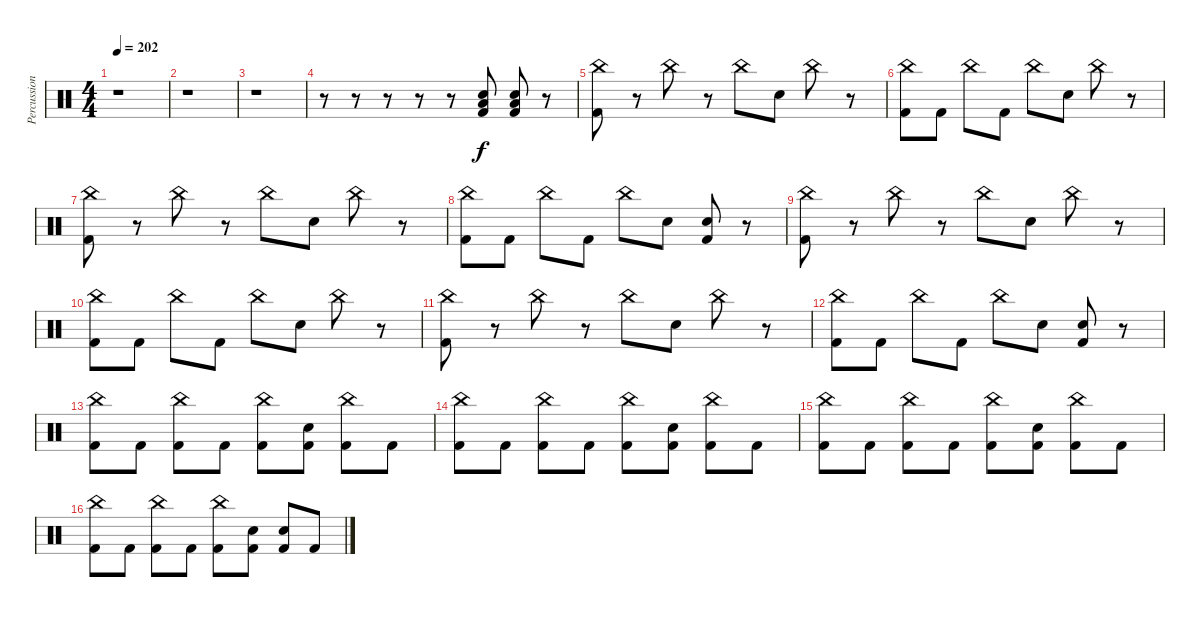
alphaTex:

\track ("Percussion" "Percussion") {instrument percussion}
\staff {score}
\articulation defaults
\ts (4 4)
\tempo 202
\clef neutral
\ks c
r.1{dy f} |
r.1 |
r.1 |
r.8 r.8 r.8 r.8 r.8 ("Low Tom (hit)" "Electric Snare (hit)" "Kick (hit) 2").8 ("Low Tom (hit)" "Electric Snare (hit)" "Kick (hit) 2").8 r.8 |
("China (hit)" "Kick (hit) 2").8 r.8 "China (hit)".8 r.8 "China (hit)".8 "Electric Snare (hit)".8 "China (hit)".8 r.8 |
("China (hit)" "Kick (hit) 2").8 "Kick (hit) 2".8 "China (hit)".8 "Kick (hit) 2".8 "China (hit)".8 "Electric Snare (hit)".8 "China (hit)".8 r.8 |
("China (hit)" "Kick (hit) 2").8 r.8 "China (hit)".8 r.8 "China (hit)".8 "Electric Snare (hit)".8 "China (hit)".8 r.8 |
("China (hit)" "Kick (hit) 2").8 "Kick (hit) 2".8 "China (hit)".8 "Kick (hit) 2".8 "China (hit)".8 "Electric Snare (hit)".8 ("Electric Snare (hit)" "Kick (hit) 2").8 r.8 |
("China (hit)" "Kick (hit) 2").8 r.8 "China (hit)".8 r.8 "China (hit)".8 "Electric Snare (hit)".8 "China (hit)".8 r.8 |
("China (hit)" "Kick (hit) 2").8 "Kick (hit) 2".8 "China (hit)".8 "Kick (hit) 2".8 "China (hit)".8 "Electric Snare (hit)".8 "China (hit)".8 r.8 |
("China (hit)" "Kick (hit) 2").8 r.8 "China (hit)".8 r.8 "China (hit)".8 "Electric Snare (hit)".8 "China (hit)".8 r.8 |
("China (hit)" "Kick (hit) 2").8 "Kick (hit) 2".8 "China (hit)".8 "Kick (hit) 2".8 "China (hit)".8 "Electric Snare (hit)".8 ("Electric Snare (hit)" "Kick (hit) 2").8 r.8 |
("China (hit)" "Kick (hit) 2").8 "Kick (hit) 2".8 ("China (hit)" "Kick (hit) 2").8 "Kick (hit) 2".8 ("China (hit)" "Kick (hit) 2").8 ("Electric Snare (hit)" "Kick (hit) 2").8 ("China (hit)" "Kick (hit) 2").8 "Kick (hit) 2".8 |
("China (hit)" "Kick (hit) 2").8 "Kick (hit) 2".8 ("China (hit)" "Kick (hit) 2").8 "Kick (hit) 2".8 ("China (hit)" "Kick (hit) 2").8 ("Electric Snare (hit)" "Kick (hit) 2").8 ("China (hit)" "Kick (hit) 2").8 "Kick (hit) 2".8 |
("China (hit)" "Kick (hit) 2").8 "Kick (hit) 2".8 ("China (hit)" "Kick (hit) 2").8 "Kick (hit) 2".8 ("China (hit)" "Kick (hit) 2").8 ("Electric Snare (hit)" "Kick (hit) 2").8 ("China (hit)" "Kick (hit) 2").8 "Kick (hit) 2".8 |
("China (hit)" "Kick (hit) 2").8 "Kick (hit) 2".8 ("China (hit)" "Kick (hit) 2").8 "Kick (hit) 2".8 ("China (hit)" "Kick (hit) 2").8 ("Electric Snare (hit)" "Kick (hit) 2").8 ("Electric Snare (hit)" "Kick (hit) 2").8 "Kick (hit) 2".8
